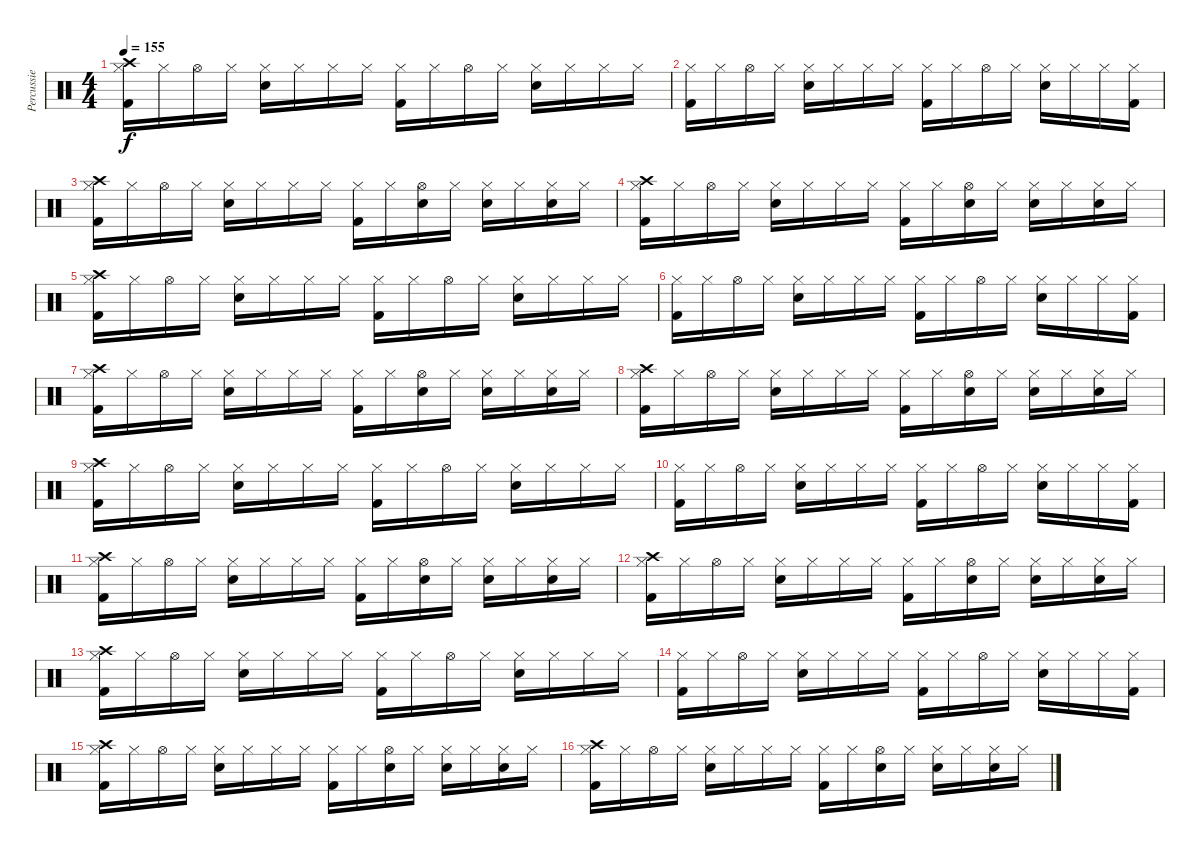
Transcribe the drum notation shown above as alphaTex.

\track ("Percussie" "Percussie") {instrument percussion}
\staff {score}
\articulation defaults
\ts (4 4)
\tempo 155
\clef neutral
\ks c
("Kick (hit) 2" "Hi-Hat (closed)" "Crash high (hit)").16{dy f} "Hi-Hat (closed)".16 "Hi-Hat (open)".16 "Hi-Hat (closed)".16 ("Electric Snare (hit)" "Hi-Hat (closed)").16 "Hi-Hat (closed)".16 "Hi-Hat (closed)".16 "Hi-Hat (closed)".16 ("Kick (hit) 2" "Hi-Hat (closed)").16 "Hi-Hat (closed)".16 "Hi-Hat (open)".16 "Hi-Hat (closed)".16 ("Electric Snare (hit)" "Hi-Hat (closed)").16 "Hi-Hat (closed)".16 "Hi-Hat (closed)".16 "Hi-Hat (closed)".16 |
("Kick (hit) 2" "Hi-Hat (closed)").16 "Hi-Hat (closed)".16 "Hi-Hat (open)".16 "Hi-Hat (closed)".16 ("Electric Snare (hit)" "Hi-Hat (closed)").16 "Hi-Hat (closed)".16 "Hi-Hat (closed)".16 "Hi-Hat (closed)".16 ("Kick (hit) 2" "Hi-Hat (closed)").16 "Hi-Hat (closed)".16 "Hi-Hat (open)".16 "Hi-Hat (closed)".16 ("Electric Snare (hit)" "Hi-Hat (closed)").16 "Hi-Hat (closed)".16 "Hi-Hat (closed)".16 ("Kick (hit) 2" "Hi-Hat (closed)").16 |
("Kick (hit) 2" "Hi-Hat (closed)" "Crash high (hit)").16 "Hi-Hat (closed)".16 "Hi-Hat (open)".16 "Hi-Hat (closed)".16 ("Electric Snare (hit)" "Hi-Hat (closed)").16 "Hi-Hat (closed)".16 "Hi-Hat (closed)".16 "Hi-Hat (closed)".16 ("Kick (hit) 2" "Hi-Hat (closed)").16 "Hi-Hat (closed)".16 ("Electric Snare (hit)" "Hi-Hat (open)").16 "Hi-Hat (closed)".16 ("Electric Snare (hit)" "Hi-Hat (closed)").16 "Hi-Hat (closed)".16 ("Electric Snare (hit)" "Hi-Hat (closed)").16 "Hi-Hat (closed)".16 |
("Kick (hit) 2" "Hi-Hat (closed)" "Crash high (hit)").16 "Hi-Hat (closed)".16 "Hi-Hat (open)".16 "Hi-Hat (closed)".16 ("Electric Snare (hit)" "Hi-Hat (closed)").16 "Hi-Hat (closed)".16 "Hi-Hat (closed)".16 "Hi-Hat (closed)".16 ("Kick (hit) 2" "Hi-Hat (closed)").16 "Hi-Hat (closed)".16 ("Electric Snare (hit)" "Hi-Hat (open)").16 "Hi-Hat (closed)".16 ("Electric Snare (hit)" "Hi-Hat (closed)").16 "Hi-Hat (closed)".16 ("Electric Snare (hit)" "Hi-Hat (closed)").16 "Hi-Hat (closed)".16 |
("Kick (hit) 2" "Hi-Hat (closed)" "Crash high (hit)").16 "Hi-Hat (closed)".16 "Hi-Hat (open)".16 "Hi-Hat (closed)".16 ("Electric Snare (hit)" "Hi-Hat (closed)").16 "Hi-Hat (closed)".16 "Hi-Hat (closed)".16 "Hi-Hat (closed)".16 ("Kick (hit) 2" "Hi-Hat (closed)").16 "Hi-Hat (closed)".16 "Hi-Hat (open)".16 "Hi-Hat (closed)".16 ("Electric Snare (hit)" "Hi-Hat (closed)").16 "Hi-Hat (closed)".16 "Hi-Hat (closed)".16 "Hi-Hat (closed)".16 |
("Kick (hit) 2" "Hi-Hat (closed)").16 "Hi-Hat (closed)".16 "Hi-Hat (open)".16 "Hi-Hat (closed)".16 ("Electric Snare (hit)" "Hi-Hat (closed)").16 "Hi-Hat (closed)".16 "Hi-Hat (closed)".16 "Hi-Hat (closed)".16 ("Kick (hit) 2" "Hi-Hat (closed)").16 "Hi-Hat (closed)".16 "Hi-Hat (open)".16 "Hi-Hat (closed)".16 ("Electric Snare (hit)" "Hi-Hat (closed)").16 "Hi-Hat (closed)".16 "Hi-Hat (closed)".16 ("Kick (hit) 2" "Hi-Hat (closed)").16 |
("Kick (hit) 2" "Hi-Hat (closed)" "Crash high (hit)").16 "Hi-Hat (closed)".16 "Hi-Hat (open)".16 "Hi-Hat (closed)".16 ("Electric Snare (hit)" "Hi-Hat (closed)").16 "Hi-Hat (closed)".16 "Hi-Hat (closed)".16 "Hi-Hat (closed)".16 ("Kick (hit) 2" "Hi-Hat (closed)").16 "Hi-Hat (closed)".16 ("Electric Snare (hit)" "Hi-Hat (open)").16 "Hi-Hat (closed)".16 ("Electric Snare (hit)" "Hi-Hat (closed)").16 "Hi-Hat (closed)".16 ("Electric Snare (hit)" "Hi-Hat (closed)").16 "Hi-Hat (closed)".16 |
("Kick (hit) 2" "Hi-Hat (closed)" "Crash high (hit)").16 "Hi-Hat (closed)".16 "Hi-Hat (open)".16 "Hi-Hat (closed)".16 ("Electric Snare (hit)" "Hi-Hat (closed)").16 "Hi-Hat (closed)".16 "Hi-Hat (closed)".16 "Hi-Hat (closed)".16 ("Kick (hit) 2" "Hi-Hat (closed)").16 "Hi-Hat (closed)".16 ("Electric Snare (hit)" "Hi-Hat (open)").16 "Hi-Hat (closed)".16 ("Electric Snare (hit)" "Hi-Hat (closed)").16 "Hi-Hat (closed)".16 ("Electric Snare (hit)" "Hi-Hat (closed)").16 "Hi-Hat (closed)".16 |
("Kick (hit) 2" "Hi-Hat (closed)" "Crash high (hit)").16 "Hi-Hat (closed)".16 "Hi-Hat (open)".16 "Hi-Hat (closed)".16 ("Electric Snare (hit)" "Hi-Hat (closed)").16 "Hi-Hat (closed)".16 "Hi-Hat (closed)".16 "Hi-Hat (closed)".16 ("Kick (hit) 2" "Hi-Hat (closed)").16 "Hi-Hat (closed)".16 "Hi-Hat (open)".16 "Hi-Hat (closed)".16 ("Electric Snare (hit)" "Hi-Hat (closed)").16 "Hi-Hat (closed)".16 "Hi-Hat (closed)".16 "Hi-Hat (closed)".16 |
("Kick (hit) 2" "Hi-Hat (closed)").16 "Hi-Hat (closed)".16 "Hi-Hat (open)".16 "Hi-Hat (closed)".16 ("Electric Snare (hit)" "Hi-Hat (closed)").16 "Hi-Hat (closed)".16 "Hi-Hat (closed)".16 "Hi-Hat (closed)".16 ("Kick (hit) 2" "Hi-Hat (closed)").16 "Hi-Hat (closed)".16 "Hi-Hat (open)".16 "Hi-Hat (closed)".16 ("Electric Snare (hit)" "Hi-Hat (closed)").16 "Hi-Hat (closed)".16 "Hi-Hat (closed)".16 ("Kick (hit) 2" "Hi-Hat (closed)").16 |
("Kick (hit) 2" "Hi-Hat (closed)" "Crash high (hit)").16 "Hi-Hat (closed)".16 "Hi-Hat (open)".16 "Hi-Hat (closed)".16 ("Electric Snare (hit)" "Hi-Hat (closed)").16 "Hi-Hat (closed)".16 "Hi-Hat (closed)".16 "Hi-Hat (closed)".16 ("Kick (hit) 2" "Hi-Hat (closed)").16 "Hi-Hat (closed)".16 ("Electric Snare (hit)" "Hi-Hat (open)").16 "Hi-Hat (closed)".16 ("Electric Snare (hit)" "Hi-Hat (closed)").16 "Hi-Hat (closed)".16 ("Electric Snare (hit)" "Hi-Hat (closed)").16 "Hi-Hat (closed)".16 |
("Kick (hit) 2" "Hi-Hat (closed)" "Crash high (hit)").16 "Hi-Hat (closed)".16 "Hi-Hat (open)".16 "Hi-Hat (closed)".16 ("Electric Snare (hit)" "Hi-Hat (closed)").16 "Hi-Hat (closed)".16 "Hi-Hat (closed)".16 "Hi-Hat (closed)".16 ("Kick (hit) 2" "Hi-Hat (closed)").16 "Hi-Hat (closed)".16 ("Electric Snare (hit)" "Hi-Hat (open)").16 "Hi-Hat (closed)".16 ("Electric Snare (hit)" "Hi-Hat (closed)").16 "Hi-Hat (closed)".16 ("Electric Snare (hit)" "Hi-Hat (closed)").16 "Hi-Hat (closed)".16 |
("Kick (hit) 2" "Hi-Hat (closed)" "Crash high (hit)").16 "Hi-Hat (closed)".16 "Hi-Hat (open)".16 "Hi-Hat (closed)".16 ("Electric Snare (hit)" "Hi-Hat (closed)").16 "Hi-Hat (closed)".16 "Hi-Hat (closed)".16 "Hi-Hat (closed)".16 ("Kick (hit) 2" "Hi-Hat (closed)").16 "Hi-Hat (closed)".16 "Hi-Hat (open)".16 "Hi-Hat (closed)".16 ("Electric Snare (hit)" "Hi-Hat (closed)").16 "Hi-Hat (closed)".16 "Hi-Hat (closed)".16 "Hi-Hat (closed)".16 |
("Kick (hit) 2" "Hi-Hat (closed)").16 "Hi-Hat (closed)".16 "Hi-Hat (open)".16 "Hi-Hat (closed)".16 ("Electric Snare (hit)" "Hi-Hat (closed)").16 "Hi-Hat (closed)".16 "Hi-Hat (closed)".16 "Hi-Hat (closed)".16 ("Kick (hit) 2" "Hi-Hat (closed)").16 "Hi-Hat (closed)".16 "Hi-Hat (open)".16 "Hi-Hat (closed)".16 ("Electric Snare (hit)" "Hi-Hat (closed)").16 "Hi-Hat (closed)".16 "Hi-Hat (closed)".16 ("Kick (hit) 2" "Hi-Hat (closed)").16 |
("Kick (hit) 2" "Hi-Hat (closed)" "Crash high (hit)").16 "Hi-Hat (closed)".16 "Hi-Hat (open)".16 "Hi-Hat (closed)".16 ("Electric Snare (hit)" "Hi-Hat (closed)").16 "Hi-Hat (closed)".16 "Hi-Hat (closed)".16 "Hi-Hat (closed)".16 ("Kick (hit) 2" "Hi-Hat (closed)").16 "Hi-Hat (closed)".16 ("Electric Snare (hit)" "Hi-Hat (open)").16 "Hi-Hat (closed)".16 ("Electric Snare (hit)" "Hi-Hat (closed)").16 "Hi-Hat (closed)".16 ("Electric Snare (hit)" "Hi-Hat (closed)").16 "Hi-Hat (closed)".16 |
("Kick (hit) 2" "Hi-Hat (closed)" "Crash high (hit)").16 "Hi-Hat (closed)".16 "Hi-Hat (open)".16 "Hi-Hat (closed)".16 ("Electric Snare (hit)" "Hi-Hat (closed)").16 "Hi-Hat (closed)".16 "Hi-Hat (closed)".16 "Hi-Hat (closed)".16 ("Kick (hit) 2" "Hi-Hat (closed)").16 "Hi-Hat (closed)".16 ("Electric Snare (hit)" "Hi-Hat (open)").16 "Hi-Hat (closed)".16 ("Electric Snare (hit)" "Hi-Hat (closed)").16 "Hi-Hat (closed)".16 ("Electric Snare (hit)" "Hi-Hat (closed)").16 "Hi-Hat (closed)".16
